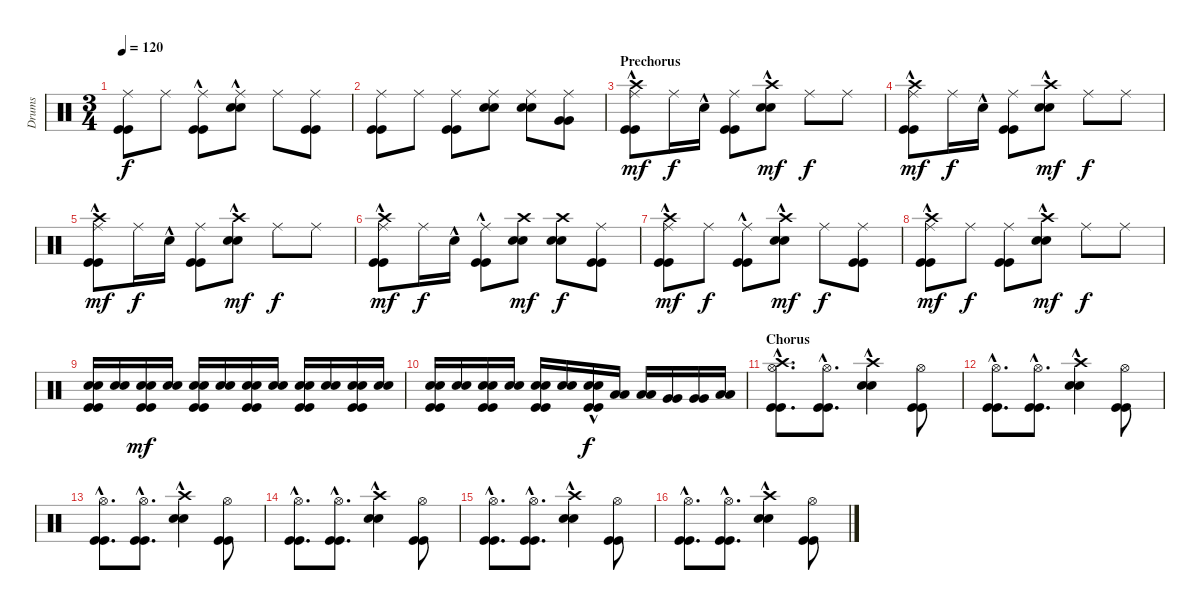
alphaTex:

\track ("Drums" "Drums") {instrument percussion}
\staff {score}
\articulation defaults
\ts (3 4)
\tempo 120
\clef neutral
\ks c
("Kick (hit)" "Kick (hit)" "Ride (middle)").8{dy f} "Ride (middle)".8 ("Kick (hit)"{hac} "Kick (hit)"{hac} "Ride (middle)").8 ("Snare (hit) 2"{hac} "Snare (hit) 2"{hac} "Ride (middle)").8 "Ride (middle)".8 ("Kick (hit)" "Kick (hit)" "Ride (middle)").8 |
("Kick (hit)" "Kick (hit)" "Ride (middle)").8 "Ride (middle)".8 ("Kick (hit)" "Kick (hit)" "Ride (middle)").8 ("Snare (hit) 2" "Snare (hit) 2" "Ride (middle)").8 ("Snare (hit) 2" "Snare (hit) 2" "Ride (middle)").8 ("Very Low Tom (hit)" "Very Low Tom (hit)" "Ride (middle)").8 |
\section ("" "Prechorus")
("Kick (hit)" "Kick (hit)" "Ride (middle)" "Crash high (hit)"{hac}).8{dy mf} "Ride (middle)".16{dy f} "Snare (hit) 2"{hac}.16 ("Kick (hit)" "Kick (hit)" "Ride (middle)").8 ("Snare (hit) 2" "Snare (hit) 2" "Crash high (hit)"{hac}).8{dy mf} "Ride (middle)".8{dy f} "Ride (middle)".8 |
("Kick (hit)" "Kick (hit)" "Ride (middle)" "Crash high (hit)"{hac}).8{dy mf} "Ride (middle)".16{dy f} "Snare (hit) 2"{hac}.16 ("Kick (hit)" "Kick (hit)" "Ride (middle)").8 ("Snare (hit) 2" "Snare (hit) 2" "Crash high (hit)"{hac}).8{dy mf} "Ride (middle)".8{dy f} "Ride (middle)".8 |
("Kick (hit)" "Kick (hit)" "Ride (middle)" "Crash high (hit)"{hac}).8{dy mf} "Ride (middle)".16{dy f} "Snare (hit) 2"{hac}.16 ("Kick (hit)" "Kick (hit)" "Ride (middle)").8 ("Snare (hit) 2" "Snare (hit) 2" "Crash high (hit)"{hac}).8{dy mf} "Ride (middle)".8{dy f} "Ride (middle)".8 |
("Kick (hit)" "Kick (hit)" "Ride (middle)" "Crash high (hit)"{hac}).8{dy mf} "Ride (middle)".16{dy f} "Snare (hit) 2"{hac}.16 ("Kick (hit)"{hac} "Kick (hit)"{hac} "Ride (middle)"{hac}).8 ("Snare (hit) 2" "Snare (hit) 2" "Crash high (hit)").8{dy mf} ("Snare (hit) 2" "Snare (hit) 2" "Crash high (hit)").8{dy f} ("Kick (hit)" "Kick (hit)" "Ride (middle)").8 |
("Kick (hit)" "Kick (hit)" "Ride (middle)" "Crash high (hit)"{hac}).8{dy mf} "Ride (middle)".8{dy f} ("Kick (hit)"{hac} "Kick (hit)"{hac} "Ride (middle)").8 ("Snare (hit) 2"{hac} "Snare (hit) 2"{hac} "Crash high (hit)"{hac}).8{dy mf} "Ride (middle)".8{dy f} ("Kick (hit)" "Kick (hit)" "Ride (middle)").8 |
("Kick (hit)" "Kick (hit)" "Ride (middle)" "Crash high (hit)"{hac}).8{dy mf} "Ride (middle)".8{dy f} ("Kick (hit)" "Kick (hit)" "Ride (middle)").8 ("Snare (hit) 2"{hac} "Snare (hit) 2"{hac} "Crash high (hit)").8{dy mf} "Ride (middle)".8{dy f} "Ride (middle)".8 |
("Kick (hit)" "Kick (hit)" "Snare (hit) 2" "Snare (hit) 2").16 ("Snare (hit) 2" "Snare (hit) 2").16 ("Kick (hit)" "Kick (hit)" "Snare (hit) 2" "Snare (hit) 2").16{dy mf} ("Snare (hit) 2" "Snare (hit) 2").16 ("Kick (hit)" "Kick (hit)" "Snare (hit) 2" "Snare (hit) 2").16 ("Snare (hit) 2" "Snare (hit) 2").16 ("Kick (hit)" "Kick (hit)" "Snare (hit) 2" "Snare (hit) 2").16 ("Snare (hit) 2" "Snare (hit) 2").16 ("Kick (hit)" "Kick (hit)" "Snare (hit) 2" "Snare (hit) 2").16 ("Snare (hit) 2" "Snare (hit) 2").16 ("Kick (hit)" "Kick (hit)" "Snare (hit) 2" "Snare (hit) 2").16 ("Snare (hit) 2" "Snare (hit) 2").16 |
("Kick (hit)" "Kick (hit)" "Snare (hit) 2" "Snare (hit) 2").16 ("Snare (hit) 2" "Snare (hit) 2").16 ("Kick (hit)" "Kick (hit)" "Snare (hit) 2" "Snare (hit) 2").16 ("Snare (hit) 2" "Snare (hit) 2").16 ("Kick (hit)" "Kick (hit)" "Snare (hit) 2" "Snare (hit) 2").16 ("Snare (hit) 2" "Snare (hit) 2").16 ("Kick (hit)"{hac} "Kick (hit)"{hac} "Snare (hit) 2"{hac} "Snare (hit) 2"{hac}).16{dy f} ("Low Tom (hit)" "Low Tom (hit)").16 ("Low Tom (hit)" "Low Tom (hit)").16 ("Very Low Tom (hit)" "Very Low Tom (hit)").16 ("Very Low Tom (hit)" "Very Low Tom (hit)").16 ("Low Floor Tom (hit)" "Low Floor Tom (hit)").16 |
\section ("" "Chorus")
("Kick (hit)"{hac} "Kick (hit)"{hac} "Hi-Hat (open)"{hac} "Crash high (hit)"{hac}).8{d} ("Kick (hit)"{hac} "Kick (hit)"{hac} "Hi-Hat (open)"{hac}).8{d} ("Snare (hit) 2"{hac} "Snare (hit) 2"{hac} "Crash high (hit)"{hac}).4 ("Kick (hit)" "Kick (hit)" "Hi-Hat (open)").8 |
("Kick (hit)"{hac} "Kick (hit)"{hac} "Hi-Hat (open)"{hac}).8{d} ("Kick (hit)"{hac} "Kick (hit)"{hac} "Hi-Hat (open)"{hac}).8{d} ("Snare (hit) 2"{hac} "Snare (hit) 2"{hac} "Crash high (hit)"{hac}).4 ("Kick (hit)" "Kick (hit)" "Hi-Hat (open)").8 |
("Kick (hit)"{hac} "Kick (hit)"{hac} "Hi-Hat (open)"{hac}).8{d} ("Kick (hit)"{hac} "Kick (hit)"{hac} "Hi-Hat (open)"{hac}).8{d} ("Snare (hit) 2"{hac} "Snare (hit) 2"{hac} "Crash high (hit)"{hac}).4 ("Kick (hit)" "Kick (hit)" "Hi-Hat (open)").8 |
("Kick (hit)"{hac} "Kick (hit)"{hac} "Hi-Hat (open)"{hac}).8{d} ("Kick (hit)"{hac} "Kick (hit)"{hac} "Hi-Hat (open)"{hac}).8{d} ("Snare (hit) 2"{hac} "Snare (hit) 2"{hac} "Crash high (hit)"{hac}).4 ("Kick (hit)" "Kick (hit)" "Hi-Hat (open)").8 |
("Kick (hit)"{hac} "Kick (hit)"{hac} "Hi-Hat (open)"{hac}).8{d} ("Kick (hit)"{hac} "Kick (hit)"{hac} "Hi-Hat (open)"{hac}).8{d} ("Snare (hit) 2"{hac} "Snare (hit) 2"{hac} "Crash high (hit)"{hac}).4 ("Kick (hit)" "Kick (hit)" "Hi-Hat (open)").8 |
("Kick (hit)"{hac} "Kick (hit)"{hac} "Hi-Hat (open)"{hac}).8{d} ("Kick (hit)"{hac} "Kick (hit)"{hac} "Hi-Hat (open)"{hac}).8{d} ("Snare (hit) 2"{hac} "Snare (hit) 2"{hac} "Crash high (hit)").4 ("Kick (hit)" "Kick (hit)" "Hi-Hat (open)").8
